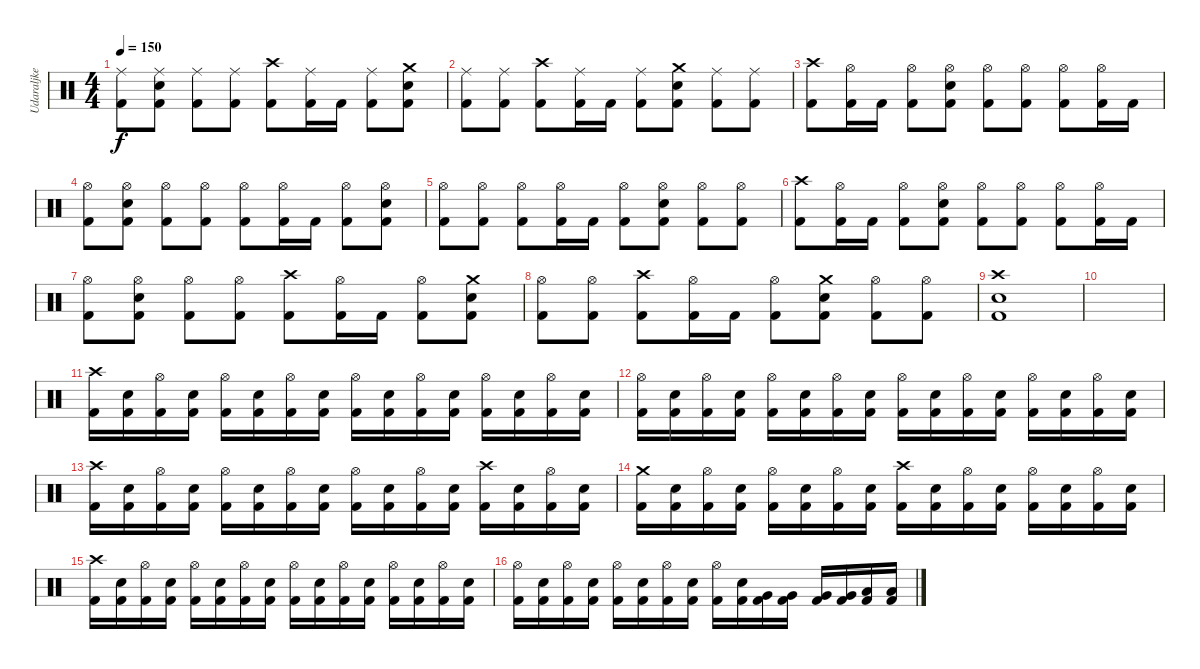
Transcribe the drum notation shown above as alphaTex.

\track ("Udaraljke" "Udaraljke") {instrument percussion}
\staff {score}
\articulation defaults
\ts (4 4)
\tempo 150
\clef neutral
\ks c
("Ride (middle)" "Kick (hit) 2").8{dy f} ("Ride (middle)" "Electric Snare (hit)" "Kick (hit) 2").8 ("Ride (middle)" "Kick (hit) 2").8 ("Ride (middle)" "Kick (hit) 2").8 ("Crash high (hit)" "Kick (hit) 2").8 ("Ride (middle)" "Kick (hit) 2").16 "Kick (hit) 2".16 ("Ride (middle)" "Kick (hit) 2").8 ("Crash medium (hit)" "Electric Snare (hit)" "Kick (hit) 2").8 |
("Ride (middle)" "Kick (hit) 2").8 ("Ride (middle)" "Kick (hit) 2").8 ("Crash high (hit)" "Kick (hit) 2").8 ("Ride (middle)" "Kick (hit) 2").16 "Kick (hit) 2".16 ("Ride (middle)" "Kick (hit) 2").8 ("Crash medium (hit)" "Electric Snare (hit)" "Kick (hit) 2").8 ("Ride (middle)" "Kick (hit) 2").8 ("Ride (middle)" "Kick (hit) 2").8 |
("Crash high (hit)" "Kick (hit) 2").8 ("Hi-Hat (open)" "Kick (hit) 2").16 "Kick (hit) 2".16 ("Hi-Hat (open)" "Kick (hit) 2").8 ("Hi-Hat (open)" "Electric Snare (hit)" "Kick (hit) 2").8 ("Hi-Hat (open)" "Kick (hit) 2").8 ("Hi-Hat (open)" "Kick (hit) 2").8 ("Hi-Hat (open)" "Kick (hit) 2").8 ("Hi-Hat (open)" "Kick (hit) 2").16 "Kick (hit) 2".16 |
("Hi-Hat (open)" "Kick (hit) 2").8 ("Hi-Hat (open)" "Electric Snare (hit)" "Kick (hit) 2").8 ("Hi-Hat (open)" "Kick (hit) 2").8 ("Hi-Hat (open)" "Kick (hit) 2").8 ("Hi-Hat (open)" "Kick (hit) 2").8 ("Hi-Hat (open)" "Kick (hit) 2").16 "Kick (hit) 2".16 ("Hi-Hat (open)" "Kick (hit) 2").8 ("Hi-Hat (open)" "Electric Snare (hit)" "Kick (hit) 2").8 |
("Hi-Hat (open)" "Kick (hit) 2").8 ("Hi-Hat (open)" "Kick (hit) 2").8 ("Hi-Hat (open)" "Kick (hit) 2").8 ("Hi-Hat (open)" "Kick (hit) 2").16 "Kick (hit) 2".16 ("Hi-Hat (open)" "Kick (hit) 2").8 ("Hi-Hat (open)" "Electric Snare (hit)" "Kick (hit) 2").8 ("Hi-Hat (open)" "Kick (hit) 2").8 ("Hi-Hat (open)" "Kick (hit) 2").8 |
("Crash high (hit)" "Kick (hit) 2").8 ("Hi-Hat (open)" "Kick (hit) 2").16 "Kick (hit) 2".16 ("Hi-Hat (open)" "Kick (hit) 2").8 ("Hi-Hat (open)" "Electric Snare (hit)" "Kick (hit) 2").8 ("Hi-Hat (open)" "Kick (hit) 2").8 ("Hi-Hat (open)" "Kick (hit) 2").8 ("Hi-Hat (open)" "Kick (hit) 2").8 ("Hi-Hat (open)" "Kick (hit) 2").16 "Kick (hit) 2".16 |
("Hi-Hat (open)" "Kick (hit) 2").8 ("Hi-Hat (open)" "Electric Snare (hit)" "Kick (hit) 2").8 ("Hi-Hat (open)" "Kick (hit) 2").8 ("Hi-Hat (open)" "Kick (hit) 2").8 ("Crash high (hit)" "Kick (hit) 2").8 ("Hi-Hat (open)" "Kick (hit) 2").16 "Kick (hit) 2".16 ("Hi-Hat (open)" "Kick (hit) 2").8 ("Crash medium (hit)" "Electric Snare (hit)" "Kick (hit) 2").8 |
("Hi-Hat (open)" "Kick (hit) 2").8 ("Hi-Hat (open)" "Kick (hit) 2").8 ("Crash high (hit)" "Kick (hit) 2").8 ("Hi-Hat (open)" "Kick (hit) 2").16 "Kick (hit) 2".16 ("Hi-Hat (open)" "Kick (hit) 2").8 ("Crash medium (hit)" "Electric Snare (hit)" "Kick (hit) 2").8 ("Hi-Hat (open)" "Kick (hit) 2").8 ("Hi-Hat (open)" "Kick (hit) 2").8 |
("Crash high (hit)" "Electric Snare (hit)" "Kick (hit) 2").1 |
|
("Crash high (hit)" "Kick (hit) 2").16 ("Electric Snare (hit)" "Kick (hit) 2").16 ("Hi-Hat (open)" "Kick (hit) 2").16 ("Electric Snare (hit)" "Kick (hit) 2").16 ("Hi-Hat (open)" "Kick (hit) 2").16 ("Electric Snare (hit)" "Kick (hit) 2").16 ("Hi-Hat (open)" "Kick (hit) 2").16 ("Electric Snare (hit)" "Kick (hit) 2").16 ("Hi-Hat (open)" "Kick (hit) 2").16 ("Electric Snare (hit)" "Kick (hit) 2").16 ("Hi-Hat (open)" "Kick (hit) 2").16 ("Electric Snare (hit)" "Kick (hit) 2").16 ("Hi-Hat (open)" "Kick (hit) 2").16 ("Electric Snare (hit)" "Kick (hit) 2").16 ("Hi-Hat (open)" "Kick (hit) 2").16 ("Electric Snare (hit)" "Kick (hit) 2").16 |
("Hi-Hat (open)" "Kick (hit) 2").16 ("Electric Snare (hit)" "Kick (hit) 2").16 ("Hi-Hat (open)" "Kick (hit) 2").16 ("Electric Snare (hit)" "Kick (hit) 2").16 ("Hi-Hat (open)" "Kick (hit) 2").16 ("Electric Snare (hit)" "Kick (hit) 2").16 ("Hi-Hat (open)" "Kick (hit) 2").16 ("Electric Snare (hit)" "Kick (hit) 2").16 ("Hi-Hat (open)" "Kick (hit) 2").16 ("Electric Snare (hit)" "Kick (hit) 2").16 ("Hi-Hat (open)" "Kick (hit) 2").16 ("Electric Snare (hit)" "Kick (hit) 2").16 ("Hi-Hat (open)" "Kick (hit) 2").16 ("Electric Snare (hit)" "Kick (hit) 2").16 ("Hi-Hat (open)" "Kick (hit) 2").16 ("Electric Snare (hit)" "Kick (hit) 2").16 |
("Crash high (hit)" "Kick (hit) 2").16 ("Electric Snare (hit)" "Kick (hit) 2").16 ("Hi-Hat (open)" "Kick (hit) 2").16 ("Electric Snare (hit)" "Kick (hit) 2").16 ("Hi-Hat (open)" "Kick (hit) 2").16 ("Electric Snare (hit)" "Kick (hit) 2").16 ("Hi-Hat (open)" "Kick (hit) 2").16 ("Electric Snare (hit)" "Kick (hit) 2").16 ("Hi-Hat (open)" "Kick (hit) 2").16 ("Electric Snare (hit)" "Kick (hit) 2").16 ("Hi-Hat (open)" "Kick (hit) 2").16 ("Electric Snare (hit)" "Kick (hit) 2").16 ("Crash high (hit)" "Kick (hit) 2").16 ("Electric Snare (hit)" "Kick (hit) 2").16 ("Hi-Hat (open)" "Kick (hit) 2").16 ("Electric Snare (hit)" "Kick (hit) 2").16 |
("Crash medium (hit)" "Kick (hit) 2").16 ("Electric Snare (hit)" "Kick (hit) 2").16 ("Hi-Hat (open)" "Kick (hit) 2").16 ("Electric Snare (hit)" "Kick (hit) 2").16 ("Hi-Hat (open)" "Kick (hit) 2").16 ("Electric Snare (hit)" "Kick (hit) 2").16 ("Hi-Hat (open)" "Kick (hit) 2").16 ("Electric Snare (hit)" "Kick (hit) 2").16 ("Crash high (hit)" "Kick (hit) 2").16 ("Electric Snare (hit)" "Kick (hit) 2").16 ("Hi-Hat (open)" "Kick (hit) 2").16 ("Electric Snare (hit)" "Kick (hit) 2").16 ("Hi-Hat (open)" "Kick (hit) 2").16 ("Electric Snare (hit)" "Kick (hit) 2").16 ("Hi-Hat (open)" "Kick (hit) 2").16 ("Electric Snare (hit)" "Kick (hit) 2").16 |
("Crash high (hit)" "Kick (hit) 2").16 ("Electric Snare (hit)" "Kick (hit) 2").16 ("Hi-Hat (open)" "Kick (hit) 2").16 ("Electric Snare (hit)" "Kick (hit) 2").16 ("Hi-Hat (open)" "Kick (hit) 2").16 ("Electric Snare (hit)" "Kick (hit) 2").16 ("Hi-Hat (open)" "Kick (hit) 2").16 ("Electric Snare (hit)" "Kick (hit) 2").16 ("Hi-Hat (open)" "Kick (hit) 2").16 ("Electric Snare (hit)" "Kick (hit) 2").16 ("Hi-Hat (open)" "Kick (hit) 2").16 ("Electric Snare (hit)" "Kick (hit) 2").16 ("Hi-Hat (open)" "Kick (hit) 2").16 ("Electric Snare (hit)" "Kick (hit) 2").16 ("Hi-Hat (open)" "Kick (hit) 2").16 ("Electric Snare (hit)" "Kick (hit) 2").16 |
("Hi-Hat (open)" "Kick (hit) 2").16 ("Electric Snare (hit)" "Kick (hit) 2").16 ("Hi-Hat (open)" "Kick (hit) 2").16 ("Electric Snare (hit)" "Kick (hit) 2").16 ("Hi-Hat (open)" "Kick (hit) 2").16 ("Electric Snare (hit)" "Kick (hit) 2").16 ("Hi-Hat (open)" "Kick (hit) 2").16 ("Electric Snare (hit)" "Kick (hit) 2").16 ("Hi-Hat (open)" "Kick (hit) 2").16 ("Electric Snare (hit)" "Kick (hit) 2").16 ("Very Low Tom (hit)" "Kick (hit) 2").16 ("Very Low Tom (hit)" "Kick (hit) 2").16 ("Very Low Tom (hit)" "Kick (hit) 2").16 ("Very Low Tom (hit)" "Kick (hit) 2").16 ("Low Floor Tom (hit)" "Kick (hit) 2").16 ("Low Floor Tom (hit)" "Kick (hit) 2").16
